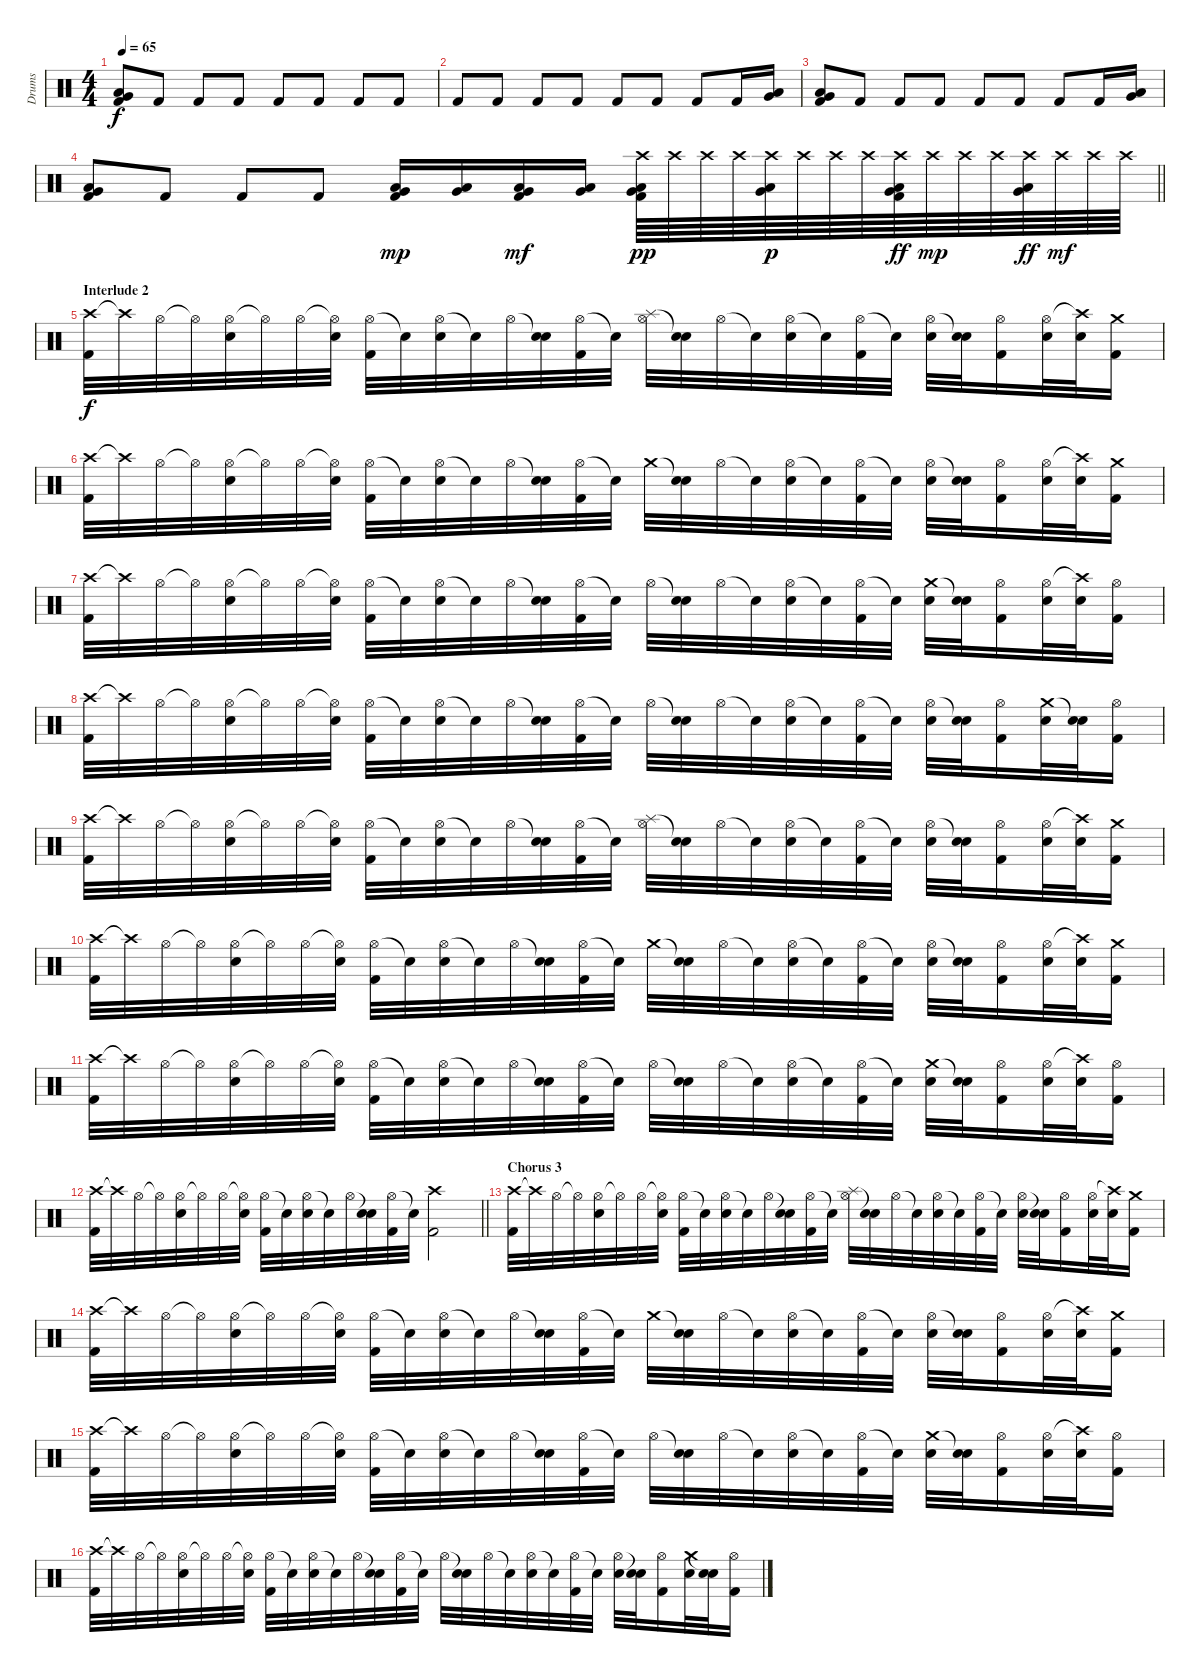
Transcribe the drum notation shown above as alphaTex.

\track ("Drums" "Drums") {instrument percussion}
\staff {score}
\articulation defaults
\ts (4 4)
\tempo 65
\clef neutral
\ks c
("Very Low Tom (hit)" "Low Floor Tom (hit)" "Kick (hit) 2").8{dy f} "Kick (hit) 2".8 "Kick (hit) 2".8 "Kick (hit) 2".8 "Kick (hit) 2".8 "Kick (hit) 2".8 "Kick (hit) 2".8 "Kick (hit) 2".8 |
"Kick (hit) 2".8 "Kick (hit) 2".8 "Kick (hit) 2".8 "Kick (hit) 2".8 "Kick (hit) 2".8 "Kick (hit) 2".8 "Kick (hit) 2".8 "Kick (hit) 2".16 ("Very Low Tom (hit)" "Low Floor Tom (hit)").16 |
("Very Low Tom (hit)" "Low Floor Tom (hit)" "Kick (hit) 2").8 "Kick (hit) 2".8 "Kick (hit) 2".8 "Kick (hit) 2".8 "Kick (hit) 2".8 "Kick (hit) 2".8 "Kick (hit) 2".8 "Kick (hit) 2".16 ("Very Low Tom (hit)" "Low Floor Tom (hit)").16 |
\barLineRight lightlight
("Very Low Tom (hit)" "Low Floor Tom (hit)" "Kick (hit) 2").8 "Kick (hit) 2".8 "Kick (hit) 2".8 "Kick (hit) 2".8 ("Very Low Tom (hit)" "Low Floor Tom (hit)" "Kick (hit) 2").16{dy mp} ("Very Low Tom (hit)" "Low Floor Tom (hit)").16 ("Very Low Tom (hit)" "Low Floor Tom (hit)" "Kick (hit) 2").16{dy mf} ("Very Low Tom (hit)" "Low Floor Tom (hit)").16 ("Crash high (hit)" "Very Low Tom (hit)" "Low Floor Tom (hit)" "Kick (hit) 2").64{dy pp} "Crash high (hit)".64 "Crash high (hit)".64 "Crash high (hit)".64 ("Crash high (hit)" "Very Low Tom (hit)" "Low Floor Tom (hit)").64{dy p} "Crash high (hit)".64 "Crash high (hit)".64 "Crash high (hit)".64 ("Crash high (hit)" "Very Low Tom (hit)" "Low Floor Tom (hit)" "Kick (hit) 2").64{dy ff} "Crash high (hit)".64{dy mp} "Crash high (hit)".64 "Crash high (hit)".64 ("Crash high (hit)" "Very Low Tom (hit)" "Low Floor Tom (hit)").64{dy ff} "Crash high (hit)".64{dy mf} "Crash high (hit)".64 "Crash high (hit)".64 |
\section ("" "Interlude 2")
("Crash high (hit)" "Kick (hit) 2").32{dy f} "Crash high (hit)"{t}.32 "Hi-Hat (open)".32 "Hi-Hat (open)"{t}.32 ("Hi-Hat (open)" "Electric Snare (hit)").32 "Hi-Hat (open)"{t}.32 "Hi-Hat (open)".32 ("Hi-Hat (open)"{t} "Electric Snare (hit)").32 ("Hi-Hat (open)" "Kick (hit) 2").32 "Snare (hit)"{t}.32 ("Hi-Hat (open)" "Electric Snare (hit)").32 "Snare (hit)"{t}.32 "Hi-Hat (open)".32 ("Snare (hit)"{t} "Electric Snare (hit)").32 ("Hi-Hat (open)" "Kick (hit) 2").32 "Snare (hit)"{t}.32 ("Splash (hit)" "Hi-Hat (open)").32 ("Snare (hit)"{t} "Electric Snare (hit)").32 "Hi-Hat (open)".32 "Snare (hit)"{t}.32 ("Hi-Hat (open)" "Electric Snare (hit)").32 "Snare (hit)"{t}.32 ("Hi-Hat (open)" "Kick (hit) 2").32 "Snare (hit)"{t}.32 ("Hi-Hat (open)" "Electric Snare (hit)").32 ("Snare (hit)"{t} "Electric Snare (hit)").32 ("Hi-Hat (open)" "Kick (hit) 2").16 ("Hi-Hat (open)" "Electric Snare (hit)").32 ("Crash high (hit)"{t} "Electric Snare (hit)").32 ("Crash medium (hit)" "Kick (hit) 2").16 |
("Crash high (hit)" "Kick (hit) 2").32 "Crash high (hit)"{t}.32 "Hi-Hat (open)".32 "Hi-Hat (open)"{t}.32 ("Hi-Hat (open)" "Electric Snare (hit)").32 "Hi-Hat (open)"{t}.32 "Hi-Hat (open)".32 ("Hi-Hat (open)"{t} "Electric Snare (hit)").32 ("Hi-Hat (open)" "Kick (hit) 2").32 "Snare (hit)"{t}.32 ("Hi-Hat (open)" "Electric Snare (hit)").32 "Snare (hit)"{t}.32 "Hi-Hat (open)".32 ("Snare (hit)"{t} "Electric Snare (hit)").32 ("Hi-Hat (open)" "Kick (hit) 2").32 "Snare (hit)"{t}.32 "Crash medium (hit)".32 ("Snare (hit)"{t} "Electric Snare (hit)").32 "Hi-Hat (open)".32 "Snare (hit)"{t}.32 ("Hi-Hat (open)" "Electric Snare (hit)").32 "Snare (hit)"{t}.32 ("Hi-Hat (open)" "Kick (hit) 2").32 "Snare (hit)"{t}.32 ("Hi-Hat (open)" "Electric Snare (hit)").32 ("Snare (hit)"{t} "Electric Snare (hit)").32 ("Hi-Hat (open)" "Kick (hit) 2").16 ("Hi-Hat (open)" "Electric Snare (hit)").32 ("Crash high (hit)"{t} "Electric Snare (hit)").32 ("Crash medium (hit)" "Kick (hit) 2").16 |
("Crash high (hit)" "Kick (hit) 2").32 "Crash high (hit)"{t}.32 "Hi-Hat (open)".32 "Hi-Hat (open)"{t}.32 ("Hi-Hat (open)" "Electric Snare (hit)").32 "Hi-Hat (open)"{t}.32 "Hi-Hat (open)".32 ("Hi-Hat (open)"{t} "Electric Snare (hit)").32 ("Hi-Hat (open)" "Kick (hit) 2").32 "Snare (hit)"{t}.32 ("Hi-Hat (open)" "Electric Snare (hit)").32 "Snare (hit)"{t}.32 "Hi-Hat (open)".32 ("Snare (hit)"{t} "Electric Snare (hit)").32 ("Hi-Hat (open)" "Kick (hit) 2").32 "Snare (hit)"{t}.32 "Hi-Hat (open)".32 ("Snare (hit)"{t} "Electric Snare (hit)").32 "Hi-Hat (open)".32 "Snare (hit)"{t}.32 ("Hi-Hat (open)" "Electric Snare (hit)").32 "Snare (hit)"{t}.32 ("Hi-Hat (open)" "Kick (hit) 2").32 "Snare (hit)"{t}.32 ("Crash medium (hit)" "Electric Snare (hit)").32 ("Snare (hit)"{t} "Electric Snare (hit)").32 ("Hi-Hat (open)" "Kick (hit) 2").16 ("Hi-Hat (open)" "Electric Snare (hit)").32 ("Crash high (hit)"{t} "Electric Snare (hit)").32 ("Hi-Hat (open)" "Kick (hit) 2").16 |
("Crash high (hit)" "Kick (hit) 2").32 "Crash high (hit)"{t}.32 "Hi-Hat (open)".32 "Hi-Hat (open)"{t}.32 ("Hi-Hat (open)" "Electric Snare (hit)").32 "Hi-Hat (open)"{t}.32 "Hi-Hat (open)".32 ("Hi-Hat (open)"{t} "Electric Snare (hit)").32 ("Hi-Hat (open)" "Kick (hit) 2").32 "Snare (hit)"{t}.32 ("Hi-Hat (open)" "Electric Snare (hit)").32 "Snare (hit)"{t}.32 "Hi-Hat (open)".32 ("Snare (hit)"{t} "Electric Snare (hit)").32 ("Hi-Hat (open)" "Kick (hit) 2").32 "Snare (hit)"{t}.32 "Hi-Hat (open)".32 ("Snare (hit)"{t} "Electric Snare (hit)").32 "Hi-Hat (open)".32 "Snare (hit)"{t}.32 ("Hi-Hat (open)" "Electric Snare (hit)").32 "Snare (hit)"{t}.32 ("Hi-Hat (open)" "Kick (hit) 2").32 "Snare (hit)"{t}.32 ("Hi-Hat (open)" "Electric Snare (hit)").32 ("Snare (hit)"{t} "Electric Snare (hit)").32 ("Hi-Hat (open)" "Kick (hit) 2").16 ("Crash medium (hit)" "Electric Snare (hit)").32 ("Snare (hit)"{t} "Electric Snare (hit)").32 ("Hi-Hat (open)" "Kick (hit) 2").16 |
("Crash high (hit)" "Kick (hit) 2").32 "Crash high (hit)"{t}.32 "Hi-Hat (open)".32 "Hi-Hat (open)"{t}.32 ("Hi-Hat (open)" "Electric Snare (hit)").32 "Hi-Hat (open)"{t}.32 "Hi-Hat (open)".32 ("Hi-Hat (open)"{t} "Electric Snare (hit)").32 ("Hi-Hat (open)" "Kick (hit) 2").32 "Snare (hit)"{t}.32 ("Hi-Hat (open)" "Electric Snare (hit)").32 "Snare (hit)"{t}.32 "Hi-Hat (open)".32 ("Snare (hit)"{t} "Electric Snare (hit)").32 ("Hi-Hat (open)" "Kick (hit) 2").32 "Snare (hit)"{t}.32 ("Splash (hit)" "Hi-Hat (open)").32 ("Snare (hit)"{t} "Electric Snare (hit)").32 "Hi-Hat (open)".32 "Snare (hit)"{t}.32 ("Hi-Hat (open)" "Electric Snare (hit)").32 "Snare (hit)"{t}.32 ("Hi-Hat (open)" "Kick (hit) 2").32 "Snare (hit)"{t}.32 ("Hi-Hat (open)" "Electric Snare (hit)").32 ("Snare (hit)"{t} "Electric Snare (hit)").32 ("Hi-Hat (open)" "Kick (hit) 2").16 ("Hi-Hat (open)" "Electric Snare (hit)").32 ("Crash high (hit)"{t} "Electric Snare (hit)").32 ("Crash medium (hit)" "Kick (hit) 2").16 |
("Crash high (hit)" "Kick (hit) 2").32 "Crash high (hit)"{t}.32 "Hi-Hat (open)".32 "Hi-Hat (open)"{t}.32 ("Hi-Hat (open)" "Electric Snare (hit)").32 "Hi-Hat (open)"{t}.32 "Hi-Hat (open)".32 ("Hi-Hat (open)"{t} "Electric Snare (hit)").32 ("Hi-Hat (open)" "Kick (hit) 2").32 "Snare (hit)"{t}.32 ("Hi-Hat (open)" "Electric Snare (hit)").32 "Snare (hit)"{t}.32 "Hi-Hat (open)".32 ("Snare (hit)"{t} "Electric Snare (hit)").32 ("Hi-Hat (open)" "Kick (hit) 2").32 "Snare (hit)"{t}.32 "Crash medium (hit)".32 ("Snare (hit)"{t} "Electric Snare (hit)").32 "Hi-Hat (open)".32 "Snare (hit)"{t}.32 ("Hi-Hat (open)" "Electric Snare (hit)").32 "Snare (hit)"{t}.32 ("Hi-Hat (open)" "Kick (hit) 2").32 "Snare (hit)"{t}.32 ("Hi-Hat (open)" "Electric Snare (hit)").32 ("Snare (hit)"{t} "Electric Snare (hit)").32 ("Hi-Hat (open)" "Kick (hit) 2").16 ("Hi-Hat (open)" "Electric Snare (hit)").32 ("Crash high (hit)"{t} "Electric Snare (hit)").32 ("Crash medium (hit)" "Kick (hit) 2").16 |
("Crash high (hit)" "Kick (hit) 2").32 "Crash high (hit)"{t}.32 "Hi-Hat (open)".32 "Hi-Hat (open)"{t}.32 ("Hi-Hat (open)" "Electric Snare (hit)").32 "Hi-Hat (open)"{t}.32 "Hi-Hat (open)".32 ("Hi-Hat (open)"{t} "Electric Snare (hit)").32 ("Hi-Hat (open)" "Kick (hit) 2").32 "Snare (hit)"{t}.32 ("Hi-Hat (open)" "Electric Snare (hit)").32 "Snare (hit)"{t}.32 "Hi-Hat (open)".32 ("Snare (hit)"{t} "Electric Snare (hit)").32 ("Hi-Hat (open)" "Kick (hit) 2").32 "Snare (hit)"{t}.32 "Hi-Hat (open)".32 ("Snare (hit)"{t} "Electric Snare (hit)").32 "Hi-Hat (open)".32 "Snare (hit)"{t}.32 ("Hi-Hat (open)" "Electric Snare (hit)").32 "Snare (hit)"{t}.32 ("Hi-Hat (open)" "Kick (hit) 2").32 "Snare (hit)"{t}.32 ("Crash medium (hit)" "Electric Snare (hit)").32 ("Snare (hit)"{t} "Electric Snare (hit)").32 ("Hi-Hat (open)" "Kick (hit) 2").16 ("Hi-Hat (open)" "Electric Snare (hit)").32 ("Crash high (hit)"{t} "Electric Snare (hit)").32 ("Hi-Hat (open)" "Kick (hit) 2").16 |
\barLineRight lightlight
("Crash high (hit)" "Kick (hit) 2").32 "Crash high (hit)"{t}.32 "Hi-Hat (open)".32 "Hi-Hat (open)"{t}.32 ("Hi-Hat (open)" "Electric Snare (hit)").32 "Hi-Hat (open)"{t}.32 "Hi-Hat (open)".32 ("Hi-Hat (open)"{t} "Electric Snare (hit)").32 ("Hi-Hat (open)" "Kick (hit) 2").32 "Snare (hit)"{t}.32 ("Hi-Hat (open)" "Electric Snare (hit)").32 "Snare (hit)"{t}.32 "Hi-Hat (open)".32 ("Snare (hit)"{t} "Electric Snare (hit)").32 ("Hi-Hat (open)" "Kick (hit) 2").32 "Snare (hit)"{t}.32 ("Crash high (hit)" "Kick (hit) 2").2 |
\section ("" "Chorus 3")
("Crash high (hit)" "Kick (hit) 2").32 "Crash high (hit)"{t}.32 "Hi-Hat (open)".32 "Hi-Hat (open)"{t}.32 ("Hi-Hat (open)" "Electric Snare (hit)").32 "Hi-Hat (open)"{t}.32 "Hi-Hat (open)".32 ("Hi-Hat (open)"{t} "Electric Snare (hit)").32 ("Hi-Hat (open)" "Kick (hit) 2").32 "Snare (hit)"{t}.32 ("Hi-Hat (open)" "Electric Snare (hit)").32 "Snare (hit)"{t}.32 "Hi-Hat (open)".32 ("Snare (hit)"{t} "Electric Snare (hit)").32 ("Hi-Hat (open)" "Kick (hit) 2").32 "Snare (hit)"{t}.32 ("Splash (hit)" "Hi-Hat (open)").32 ("Snare (hit)"{t} "Electric Snare (hit)").32 "Hi-Hat (open)".32 "Snare (hit)"{t}.32 ("Hi-Hat (open)" "Electric Snare (hit)").32 "Snare (hit)"{t}.32 ("Hi-Hat (open)" "Kick (hit) 2").32 "Snare (hit)"{t}.32 ("Hi-Hat (open)" "Electric Snare (hit)").32 ("Snare (hit)"{t} "Electric Snare (hit)").32 ("Hi-Hat (open)" "Kick (hit) 2").16 ("Hi-Hat (open)" "Electric Snare (hit)").32 ("Crash high (hit)"{t} "Electric Snare (hit)").32 ("Crash medium (hit)" "Kick (hit) 2").16 |
("Crash high (hit)" "Kick (hit) 2").32 "Crash high (hit)"{t}.32 "Hi-Hat (open)".32 "Hi-Hat (open)"{t}.32 ("Hi-Hat (open)" "Electric Snare (hit)").32 "Hi-Hat (open)"{t}.32 "Hi-Hat (open)".32 ("Hi-Hat (open)"{t} "Electric Snare (hit)").32 ("Hi-Hat (open)" "Kick (hit) 2").32 "Snare (hit)"{t}.32 ("Hi-Hat (open)" "Electric Snare (hit)").32 "Snare (hit)"{t}.32 "Hi-Hat (open)".32 ("Snare (hit)"{t} "Electric Snare (hit)").32 ("Hi-Hat (open)" "Kick (hit) 2").32 "Snare (hit)"{t}.32 "Crash medium (hit)".32 ("Snare (hit)"{t} "Electric Snare (hit)").32 "Hi-Hat (open)".32 "Snare (hit)"{t}.32 ("Hi-Hat (open)" "Electric Snare (hit)").32 "Snare (hit)"{t}.32 ("Hi-Hat (open)" "Kick (hit) 2").32 "Snare (hit)"{t}.32 ("Hi-Hat (open)" "Electric Snare (hit)").32 ("Snare (hit)"{t} "Electric Snare (hit)").32 ("Hi-Hat (open)" "Kick (hit) 2").16 ("Hi-Hat (open)" "Electric Snare (hit)").32 ("Crash high (hit)"{t} "Electric Snare (hit)").32 ("Crash medium (hit)" "Kick (hit) 2").16 |
("Crash high (hit)" "Kick (hit) 2").32 "Crash high (hit)"{t}.32 "Hi-Hat (open)".32 "Hi-Hat (open)"{t}.32 ("Hi-Hat (open)" "Electric Snare (hit)").32 "Hi-Hat (open)"{t}.32 "Hi-Hat (open)".32 ("Hi-Hat (open)"{t} "Electric Snare (hit)").32 ("Hi-Hat (open)" "Kick (hit) 2").32 "Snare (hit)"{t}.32 ("Hi-Hat (open)" "Electric Snare (hit)").32 "Snare (hit)"{t}.32 "Hi-Hat (open)".32 ("Snare (hit)"{t} "Electric Snare (hit)").32 ("Hi-Hat (open)" "Kick (hit) 2").32 "Snare (hit)"{t}.32 "Hi-Hat (open)".32 ("Snare (hit)"{t} "Electric Snare (hit)").32 "Hi-Hat (open)".32 "Snare (hit)"{t}.32 ("Hi-Hat (open)" "Electric Snare (hit)").32 "Snare (hit)"{t}.32 ("Hi-Hat (open)" "Kick (hit) 2").32 "Snare (hit)"{t}.32 ("Crash medium (hit)" "Electric Snare (hit)").32 ("Snare (hit)"{t} "Electric Snare (hit)").32 ("Hi-Hat (open)" "Kick (hit) 2").16 ("Hi-Hat (open)" "Electric Snare (hit)").32 ("Crash high (hit)"{t} "Electric Snare (hit)").32 ("Hi-Hat (open)" "Kick (hit) 2").16 |
("Crash high (hit)" "Kick (hit) 2").32 "Crash high (hit)"{t}.32 "Hi-Hat (open)".32 "Hi-Hat (open)"{t}.32 ("Hi-Hat (open)" "Electric Snare (hit)").32 "Hi-Hat (open)"{t}.32 "Hi-Hat (open)".32 ("Hi-Hat (open)"{t} "Electric Snare (hit)").32 ("Hi-Hat (open)" "Kick (hit) 2").32 "Snare (hit)"{t}.32 ("Hi-Hat (open)" "Electric Snare (hit)").32 "Snare (hit)"{t}.32 "Hi-Hat (open)".32 ("Snare (hit)"{t} "Electric Snare (hit)").32 ("Hi-Hat (open)" "Kick (hit) 2").32 "Snare (hit)"{t}.32 "Hi-Hat (open)".32 ("Snare (hit)"{t} "Electric Snare (hit)").32 "Hi-Hat (open)".32 "Snare (hit)"{t}.32 ("Hi-Hat (open)" "Electric Snare (hit)").32 "Snare (hit)"{t}.32 ("Hi-Hat (open)" "Kick (hit) 2").32 "Snare (hit)"{t}.32 ("Hi-Hat (open)" "Electric Snare (hit)").32 ("Snare (hit)"{t} "Electric Snare (hit)").32 ("Hi-Hat (open)" "Kick (hit) 2").16 ("Crash medium (hit)" "Electric Snare (hit)").32 ("Snare (hit)"{t} "Electric Snare (hit)").32 ("Hi-Hat (open)" "Kick (hit) 2").16
